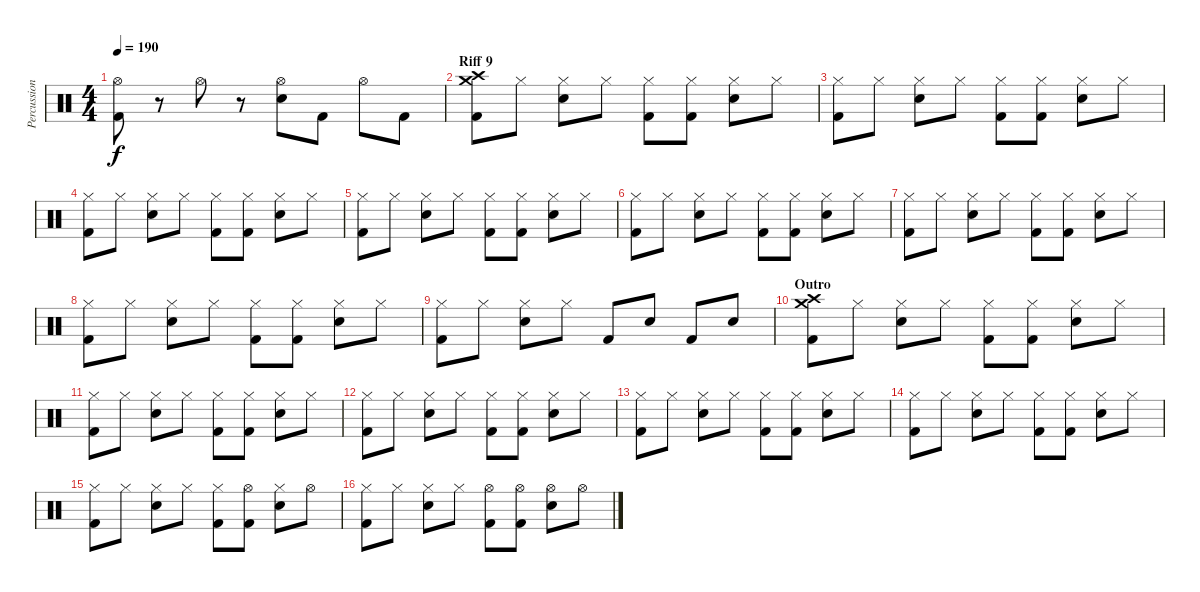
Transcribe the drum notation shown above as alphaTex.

\track ("Percussion" "Percussion") {instrument percussion}
\staff {score}
\articulation defaults
\ts (4 4)
\tempo 190
\clef neutral
\ks c
("Hi-Hat (open)" "Kick (hit) 2").8{dy f} r.8 "Hi-Hat (open)".8 r.8 ("Hi-Hat (open)" "Electric Snare (hit)").8 "Kick (hit) 2".8 "Hi-Hat (open)".8 "Kick (hit) 2".8 |
\section ("" "Riff 9")
("Crash medium (hit)" "Crash high (hit)" "Kick (hit) 2").8 "Hi-Hat (closed)".8 ("Hi-Hat (closed)" "Electric Snare (hit)").8 "Hi-Hat (closed)".8 ("Hi-Hat (closed)" "Kick (hit) 2").8 ("Hi-Hat (closed)" "Kick (hit) 2").8 ("Hi-Hat (closed)" "Electric Snare (hit)").8 "Hi-Hat (closed)".8 |
("Hi-Hat (closed)" "Kick (hit) 2").8 "Hi-Hat (closed)".8 ("Hi-Hat (closed)" "Electric Snare (hit)").8 "Hi-Hat (closed)".8 ("Hi-Hat (closed)" "Kick (hit) 2").8 ("Hi-Hat (closed)" "Kick (hit) 2").8 ("Hi-Hat (closed)" "Electric Snare (hit)").8 "Hi-Hat (closed)".8 |
("Hi-Hat (closed)" "Kick (hit) 2").8 "Hi-Hat (closed)".8 ("Hi-Hat (closed)" "Electric Snare (hit)").8 "Hi-Hat (closed)".8 ("Hi-Hat (closed)" "Kick (hit) 2").8 ("Hi-Hat (closed)" "Kick (hit) 2").8 ("Hi-Hat (closed)" "Electric Snare (hit)").8 "Hi-Hat (closed)".8 |
("Hi-Hat (closed)" "Kick (hit) 2").8 "Hi-Hat (closed)".8 ("Hi-Hat (closed)" "Electric Snare (hit)").8 "Hi-Hat (closed)".8 ("Hi-Hat (closed)" "Kick (hit) 2").8 ("Hi-Hat (closed)" "Kick (hit) 2").8 ("Hi-Hat (closed)" "Electric Snare (hit)").8 "Hi-Hat (closed)".8 |
("Hi-Hat (closed)" "Kick (hit) 2").8 "Hi-Hat (closed)".8 ("Hi-Hat (closed)" "Electric Snare (hit)").8 "Hi-Hat (closed)".8 ("Hi-Hat (closed)" "Kick (hit) 2").8 ("Hi-Hat (closed)" "Kick (hit) 2").8 ("Hi-Hat (closed)" "Electric Snare (hit)").8 "Hi-Hat (closed)".8 |
("Hi-Hat (closed)" "Kick (hit) 2").8 "Hi-Hat (closed)".8 ("Hi-Hat (closed)" "Electric Snare (hit)").8 "Hi-Hat (closed)".8 ("Hi-Hat (closed)" "Kick (hit) 2").8 ("Hi-Hat (closed)" "Kick (hit) 2").8 ("Hi-Hat (closed)" "Electric Snare (hit)").8 "Hi-Hat (closed)".8 |
("Hi-Hat (closed)" "Kick (hit) 2").8 "Hi-Hat (closed)".8 ("Hi-Hat (closed)" "Electric Snare (hit)").8 "Hi-Hat (closed)".8 ("Hi-Hat (closed)" "Kick (hit) 2").8 ("Hi-Hat (closed)" "Kick (hit) 2").8 ("Hi-Hat (closed)" "Electric Snare (hit)").8 "Hi-Hat (closed)".8 |
("Hi-Hat (closed)" "Kick (hit) 2").8 "Hi-Hat (closed)".8 ("Hi-Hat (closed)" "Electric Snare (hit)").8 "Hi-Hat (closed)".8 "Kick (hit) 2".8 "Electric Snare (hit)".8 "Kick (hit) 2".8 "Electric Snare (hit)".8 |
\section ("" "Outro")
("Crash medium (hit)" "Crash high (hit)" "Kick (hit) 2").8 "Hi-Hat (closed)".8 ("Hi-Hat (closed)" "Electric Snare (hit)").8 "Hi-Hat (closed)".8 ("Hi-Hat (closed)" "Kick (hit) 2").8 ("Hi-Hat (closed)" "Kick (hit) 2").8 ("Hi-Hat (closed)" "Electric Snare (hit)").8 "Hi-Hat (closed)".8 |
("Hi-Hat (closed)" "Kick (hit) 2").8 "Hi-Hat (closed)".8 ("Hi-Hat (closed)" "Electric Snare (hit)").8 "Hi-Hat (closed)".8 ("Hi-Hat (closed)" "Kick (hit) 2").8 ("Hi-Hat (closed)" "Kick (hit) 2").8 ("Hi-Hat (closed)" "Electric Snare (hit)").8 "Hi-Hat (closed)".8 |
("Hi-Hat (closed)" "Kick (hit) 2").8 "Hi-Hat (closed)".8 ("Hi-Hat (closed)" "Electric Snare (hit)").8 "Hi-Hat (closed)".8 ("Hi-Hat (closed)" "Kick (hit) 2").8 ("Hi-Hat (closed)" "Kick (hit) 2").8 ("Hi-Hat (closed)" "Electric Snare (hit)").8 "Hi-Hat (closed)".8 |
("Hi-Hat (closed)" "Kick (hit) 2").8 "Hi-Hat (closed)".8 ("Hi-Hat (closed)" "Electric Snare (hit)").8 "Hi-Hat (closed)".8 ("Hi-Hat (closed)" "Kick (hit) 2").8 ("Hi-Hat (closed)" "Kick (hit) 2").8 ("Hi-Hat (closed)" "Electric Snare (hit)").8 "Hi-Hat (closed)".8 |
("Hi-Hat (closed)" "Kick (hit) 2").8 "Hi-Hat (closed)".8 ("Hi-Hat (closed)" "Electric Snare (hit)").8 "Hi-Hat (closed)".8 ("Hi-Hat (closed)" "Kick (hit) 2").8 ("Hi-Hat (closed)" "Kick (hit) 2").8 ("Hi-Hat (closed)" "Electric Snare (hit)").8 "Hi-Hat (closed)".8 |
("Hi-Hat (closed)" "Kick (hit) 2").8 "Hi-Hat (closed)".8 ("Hi-Hat (closed)" "Electric Snare (hit)").8 "Hi-Hat (closed)".8 ("Hi-Hat (closed)" "Kick (hit) 2").8 ("Hi-Hat (open)" "Kick (hit) 2").8 ("Hi-Hat (closed)" "Electric Snare (hit)").8 "Hi-Hat (open)".8 |
("Hi-Hat (closed)" "Kick (hit) 2").8 "Hi-Hat (closed)".8 ("Hi-Hat (closed)" "Electric Snare (hit)").8 "Hi-Hat (closed)".8 ("Hi-Hat (open)" "Kick (hit) 2").8 ("Hi-Hat (open)" "Kick (hit) 2").8 ("Hi-Hat (open)" "Electric Snare (hit)").8 "Hi-Hat (open)".8
